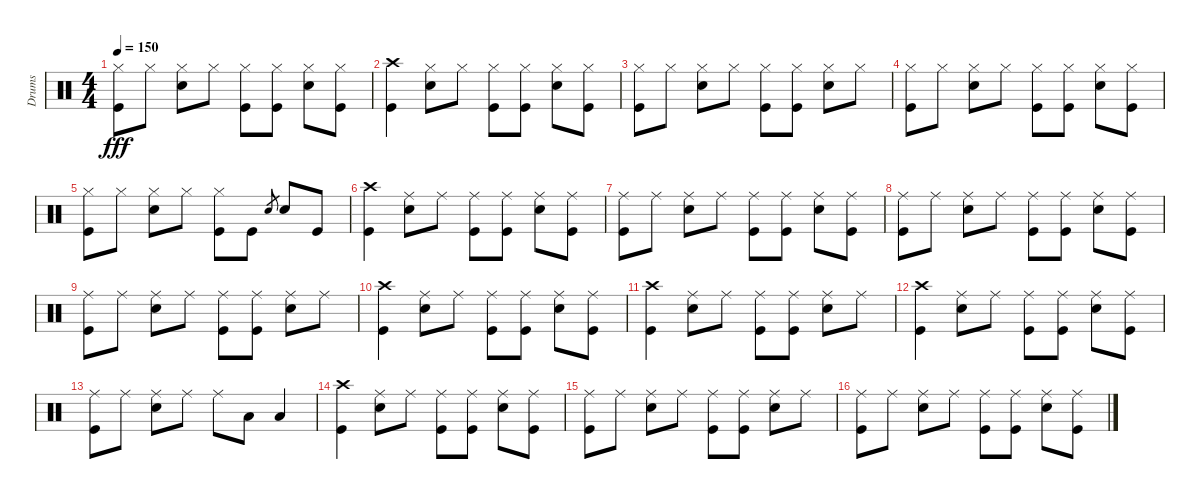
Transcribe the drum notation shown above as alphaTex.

\track ("Drums" "Drums") {instrument percussion}
\staff {score}
\articulation defaults
\ts (4 4)
\tempo 150
\clef neutral
\ks c
("Hi-Hat (closed)" "Kick (hit)").8{dy fff} "Hi-Hat (closed)".8 ("Hi-Hat (closed)" "Snare (hit) 2").8 "Hi-Hat (closed)".8 ("Hi-Hat (closed)" "Kick (hit)").8 ("Hi-Hat (closed)" "Kick (hit)").8 ("Hi-Hat (closed)" "Snare (hit) 2").8 ("Hi-Hat (closed)" "Kick (hit)").8 |
("Crash high (hit)" "Kick (hit)").4 ("Hi-Hat (closed)" "Snare (hit) 2").8 "Hi-Hat (closed)".8 ("Hi-Hat (closed)" "Kick (hit)").8 ("Hi-Hat (closed)" "Kick (hit)").8 ("Hi-Hat (closed)" "Snare (hit) 2").8 ("Hi-Hat (closed)" "Kick (hit)").8 |
("Hi-Hat (closed)" "Kick (hit)").8 "Hi-Hat (closed)".8 ("Hi-Hat (closed)" "Snare (hit) 2").8 "Hi-Hat (closed)".8 ("Hi-Hat (closed)" "Kick (hit)").8 ("Hi-Hat (closed)" "Kick (hit)").8 ("Hi-Hat (closed)" "Snare (hit) 2").8 "Hi-Hat (closed)".8 |
("Hi-Hat (closed)" "Kick (hit)").8 "Hi-Hat (closed)".8 ("Hi-Hat (closed)" "Snare (hit) 2").8 "Hi-Hat (closed)".8 ("Hi-Hat (closed)" "Kick (hit)").8 ("Hi-Hat (closed)" "Kick (hit)").8 ("Hi-Hat (closed)" "Snare (hit) 2").8 ("Hi-Hat (closed)" "Kick (hit)").8 |
("Hi-Hat (closed)" "Kick (hit)").8 "Hi-Hat (closed)".8 ("Hi-Hat (closed)" "Snare (hit) 2").8 "Hi-Hat (closed)".8 ("Hi-Hat (closed)" "Kick (hit)").8 "Kick (hit)".8 "Snare (hit) 2".8{gr} "Snare (hit) 2".8 "Kick (hit)".8 |
("Crash high (hit)" "Kick (hit)").4 ("Ride (middle)" "Snare (hit) 2").8 "Ride (middle)".8 ("Ride (middle)" "Kick (hit)").8 ("Ride (middle)" "Kick (hit)").8 ("Ride (middle)" "Snare (hit) 2").8 ("Ride (middle)" "Kick (hit)").8 |
("Ride (middle)" "Kick (hit)").8 "Ride (middle)".8 ("Ride (middle)" "Snare (hit) 2").8 "Ride (middle)".8 ("Ride (middle)" "Kick (hit)").8 ("Ride (middle)" "Kick (hit)").8 ("Ride (middle)" "Snare (hit) 2").8 ("Ride (middle)" "Kick (hit)").8 |
("Ride (middle)" "Kick (hit)").8 "Ride (middle)".8 ("Ride (middle)" "Snare (hit) 2").8 "Ride (middle)".8 ("Ride (middle)" "Kick (hit)").8 ("Ride (middle)" "Kick (hit)").8 ("Ride (middle)" "Snare (hit) 2").8 ("Ride (middle)" "Kick (hit)").8 |
("Ride (middle)" "Kick (hit)").8 "Ride (middle)".8 ("Ride (middle)" "Snare (hit) 2").8 "Ride (middle)".8 ("Ride (middle)" "Kick (hit)").8 ("Ride (middle)" "Kick (hit)").8 ("Ride (middle)" "Snare (hit) 2").8 "Ride (middle)".8 |
("Crash high (hit)" "Kick (hit)").4 ("Ride (middle)" "Snare (hit) 2").8 "Ride (middle)".8 ("Ride (middle)" "Kick (hit)").8 ("Ride (middle)" "Kick (hit)").8 ("Ride (middle)" "Snare (hit) 2").8 ("Ride (middle)" "Kick (hit)").8 |
("Crash high (hit)" "Kick (hit)").4 ("Ride (middle)" "Snare (hit) 2").8 "Ride (middle)".8 ("Ride (middle)" "Kick (hit)").8 ("Ride (middle)" "Kick (hit)").8 ("Ride (middle)" "Snare (hit) 2").8 "Ride (middle)".8 |
("Crash high (hit)" "Kick (hit)").4 ("Ride (middle)" "Snare (hit) 2").8 "Ride (middle)".8 ("Ride (middle)" "Kick (hit)").8 ("Ride (middle)" "Kick (hit)").8 ("Ride (middle)" "Snare (hit) 2").8 ("Ride (middle)" "Kick (hit)").8 |
("Ride (middle)" "Kick (hit)").8 "Ride (middle)".8 ("Ride (middle)" "Snare (hit) 2").8 "Ride (middle)".8 "Ride (middle)".8 "Low Tom (hit)".8 "Low Tom (hit)".4 |
("Crash high (hit)" "Kick (hit)").4 ("Ride (middle)" "Snare (hit) 2").8 "Ride (middle)".8 ("Ride (middle)" "Kick (hit)").8 ("Ride (middle)" "Kick (hit)").8 ("Ride (middle)" "Snare (hit) 2").8 ("Ride (middle)" "Kick (hit)").8 |
("Ride (middle)" "Kick (hit)").8 "Ride (middle)".8 ("Ride (middle)" "Snare (hit) 2").8 "Ride (middle)".8 ("Ride (middle)" "Kick (hit)").8 ("Ride (middle)" "Kick (hit)").8 ("Ride (middle)" "Snare (hit) 2").8 "Ride (middle)".8 |
("Ride (middle)" "Kick (hit)").8 "Ride (middle)".8 ("Ride (middle)" "Snare (hit) 2").8 "Ride (middle)".8 ("Ride (middle)" "Kick (hit)").8 ("Ride (middle)" "Kick (hit)").8 ("Ride (middle)" "Snare (hit) 2").8 ("Ride (middle)" "Kick (hit)").8
